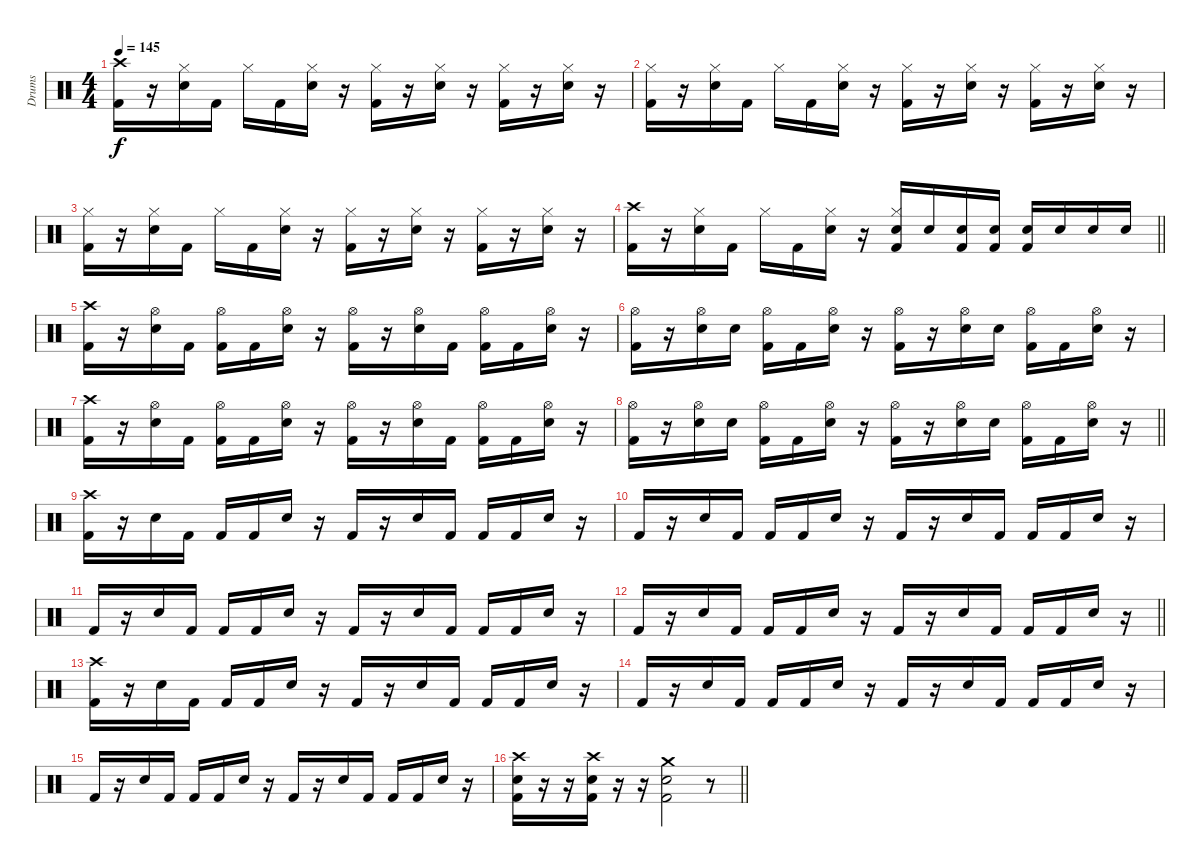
\track ("Drums" "Drums") {instrument percussion}
\staff {score}
\articulation defaults
\ts (4 4)
\tempo 145
\clef neutral
\ks c
("Crash high (hit)" "Kick (hit) 2").16{dy f} r.16 ("Hi-Hat (closed)" "Electric Snare (hit)").16 "Kick (hit) 2".16 "Hi-Hat (closed)".16 "Kick (hit) 2".16 ("Hi-Hat (closed)" "Electric Snare (hit)").16 r.16 ("Hi-Hat (closed)" "Kick (hit) 2").16 r.16 ("Hi-Hat (closed)" "Electric Snare (hit)").16 r.16 ("Hi-Hat (closed)" "Kick (hit) 2").16 r.16 ("Hi-Hat (closed)" "Electric Snare (hit)").16 r.16 |
("Hi-Hat (closed)" "Kick (hit) 2").16 r.16 ("Hi-Hat (closed)" "Electric Snare (hit)").16 "Kick (hit) 2".16 "Hi-Hat (closed)".16 "Kick (hit) 2".16 ("Hi-Hat (closed)" "Electric Snare (hit)").16 r.16 ("Hi-Hat (closed)" "Kick (hit) 2").16 r.16 ("Hi-Hat (closed)" "Electric Snare (hit)").16 r.16 ("Hi-Hat (closed)" "Kick (hit) 2").16 r.16 ("Hi-Hat (closed)" "Electric Snare (hit)").16 r.16 |
("Hi-Hat (closed)" "Kick (hit) 2").16 r.16 ("Hi-Hat (closed)" "Electric Snare (hit)").16 "Kick (hit) 2".16 "Hi-Hat (closed)".16 "Kick (hit) 2".16 ("Hi-Hat (closed)" "Electric Snare (hit)").16 r.16 ("Hi-Hat (closed)" "Kick (hit) 2").16 r.16 ("Hi-Hat (closed)" "Electric Snare (hit)").16 r.16 ("Hi-Hat (closed)" "Kick (hit) 2").16 r.16 ("Hi-Hat (closed)" "Electric Snare (hit)").16 r.16 |
\barLineRight lightlight
("Crash high (hit)" "Kick (hit) 2").16 r.16 ("Hi-Hat (closed)" "Electric Snare (hit)").16 "Kick (hit) 2".16 "Hi-Hat (closed)".16 "Kick (hit) 2".16 ("Hi-Hat (closed)" "Electric Snare (hit)").16 r.16 ("Hi-Hat (closed)" "Electric Snare (hit)" "Kick (hit) 2").16 "Electric Snare (hit)".16 ("Electric Snare (hit)" "Kick (hit) 2").16 ("Electric Snare (hit)" "Kick (hit) 2").16 ("Electric Snare (hit)" "Kick (hit) 2").16 "Electric Snare (hit)".16 "Electric Snare (hit)".16 "Electric Snare (hit)".16 |
("Crash high (hit)" "Kick (hit) 2").16 r.16 ("Hi-Hat (open)" "Electric Snare (hit)").16 "Kick (hit) 2".16 ("Hi-Hat (open)" "Kick (hit) 2").16 "Kick (hit) 2".16 ("Hi-Hat (open)" "Electric Snare (hit)").16 r.16 ("Hi-Hat (open)" "Kick (hit) 2").16 r.16 ("Hi-Hat (open)" "Electric Snare (hit)").16 "Kick (hit) 2".16 ("Hi-Hat (open)" "Kick (hit) 2").16 "Kick (hit) 2".16 ("Hi-Hat (open)" "Electric Snare (hit)").16 r.16 |
("Hi-Hat (open)" "Kick (hit) 2").16 r.16 ("Hi-Hat (open)" "Electric Snare (hit)").16 "Electric Snare (hit)".16 ("Hi-Hat (open)" "Kick (hit) 2").16 "Kick (hit) 2".16 ("Hi-Hat (open)" "Electric Snare (hit)").16 r.16 ("Hi-Hat (open)" "Kick (hit) 2").16 r.16 ("Hi-Hat (open)" "Electric Snare (hit)").16 "Electric Snare (hit)".16 ("Hi-Hat (open)" "Kick (hit) 2").16 "Kick (hit) 2".16 ("Hi-Hat (open)" "Electric Snare (hit)").16 r.16 |
("Crash high (hit)" "Kick (hit) 2").16 r.16 ("Hi-Hat (open)" "Electric Snare (hit)").16 "Kick (hit) 2".16 ("Hi-Hat (open)" "Kick (hit) 2").16 "Kick (hit) 2".16 ("Hi-Hat (open)" "Electric Snare (hit)").16 r.16 ("Hi-Hat (open)" "Kick (hit) 2").16 r.16 ("Hi-Hat (open)" "Electric Snare (hit)").16 "Kick (hit) 2".16 ("Hi-Hat (open)" "Kick (hit) 2").16 "Kick (hit) 2".16 ("Hi-Hat (open)" "Electric Snare (hit)").16 r.16 |
\barLineRight lightlight
("Hi-Hat (open)" "Kick (hit) 2").16 r.16 ("Hi-Hat (open)" "Electric Snare (hit)").16 "Electric Snare (hit)".16 ("Hi-Hat (open)" "Kick (hit) 2").16 "Kick (hit) 2".16 ("Hi-Hat (open)" "Electric Snare (hit)").16 r.16 ("Hi-Hat (open)" "Kick (hit) 2").16 r.16 ("Hi-Hat (open)" "Electric Snare (hit)").16 "Electric Snare (hit)".16 ("Hi-Hat (open)" "Kick (hit) 2").16 "Kick (hit) 2".16 ("Hi-Hat (open)" "Electric Snare (hit)").16 r.16 |
("Crash high (hit)" "Kick (hit) 2").16 r.16 "Electric Snare (hit)".16 "Kick (hit) 2".16 "Kick (hit) 2".16 "Kick (hit) 2".16 "Electric Snare (hit)".16 r.16 "Kick (hit) 2".16 r.16 "Electric Snare (hit)".16 "Kick (hit) 2".16 "Kick (hit) 2".16 "Kick (hit) 2".16 "Electric Snare (hit)".16 r.16 |
"Kick (hit) 2".16 r.16 "Electric Snare (hit)".16 "Kick (hit) 2".16 "Kick (hit) 2".16 "Kick (hit) 2".16 "Electric Snare (hit)".16 r.16 "Kick (hit) 2".16 r.16 "Electric Snare (hit)".16 "Kick (hit) 2".16 "Kick (hit) 2".16 "Kick (hit) 2".16 "Electric Snare (hit)".16 r.16 |
"Kick (hit) 2".16 r.16 "Electric Snare (hit)".16 "Kick (hit) 2".16 "Kick (hit) 2".16 "Kick (hit) 2".16 "Electric Snare (hit)".16 r.16 "Kick (hit) 2".16 r.16 "Electric Snare (hit)".16 "Kick (hit) 2".16 "Kick (hit) 2".16 "Kick (hit) 2".16 "Electric Snare (hit)".16 r.16 |
\barLineRight lightlight "Kick (hit) 2".16
r.16 "Electric Snare (hit)".16 "Kick (hit) 2".16 "Kick (hit) 2".16 "Kick (hit) 2".16 "Electric Snare (hit)".16 r.16 "Kick (hit) 2".16 r.16 "Electric Snare (hit)".16 "Kick (hit) 2".16 "Kick (hit) 2".16 "Kick (hit) 2".16 "Electric Snare (hit)".16 r.16 |
("Crash high (hit)" "Kick (hit) 2").16 r.16 "Electric Snare (hit)".16 "Kick (hit) 2".16 "Kick (hit) 2".16 "Kick (hit) 2".16 "Electric Snare (hit)".16 r.16 "Kick (hit) 2".16 r.16 "Electric Snare (hit)".16 "Kick (hit) 2".16 "Kick (hit) 2".16 "Kick (hit) 2".16 "Electric Snare (hit)".16 r.16 |
"Kick (hit) 2".16 r.16 "Electric Snare (hit)".16 "Kick (hit) 2".16 "Kick (hit) 2".16 "Kick (hit) 2".16 "Electric Snare (hit)".16 r.16 "Kick (hit) 2".16 r.16 "Electric Snare (hit)".16 "Kick (hit) 2".16 "Kick (hit) 2".16 "Kick (hit) 2".16 "Electric Snare (hit)".16 r.16 |
"Kick (hit) 2".16 r.16 "Electric Snare (hit)".16 "Kick (hit) 2".16 "Kick (hit) 2".16 "Kick (hit) 2".16 "Electric Snare (hit)".16 r.16 "Kick (hit) 2".16 r.16 "Electric Snare (hit)".16 "Kick (hit) 2".16 "Kick (hit) 2".16 "Kick (hit) 2".16 "Electric Snare (hit)".16 r.16 |
\barLineRight lightlight
("Crash high (hit)" "Electric Snare (hit)" "Kick (hit) 2").16 r.16 r.16 ("Crash high (hit)" "Electric Snare (hit)" "Kick (hit) 2").16 r.16 r.16 ("Crash medium (hit)" "Electric Snare (hit)" "Kick (hit) 2").2 r.8
